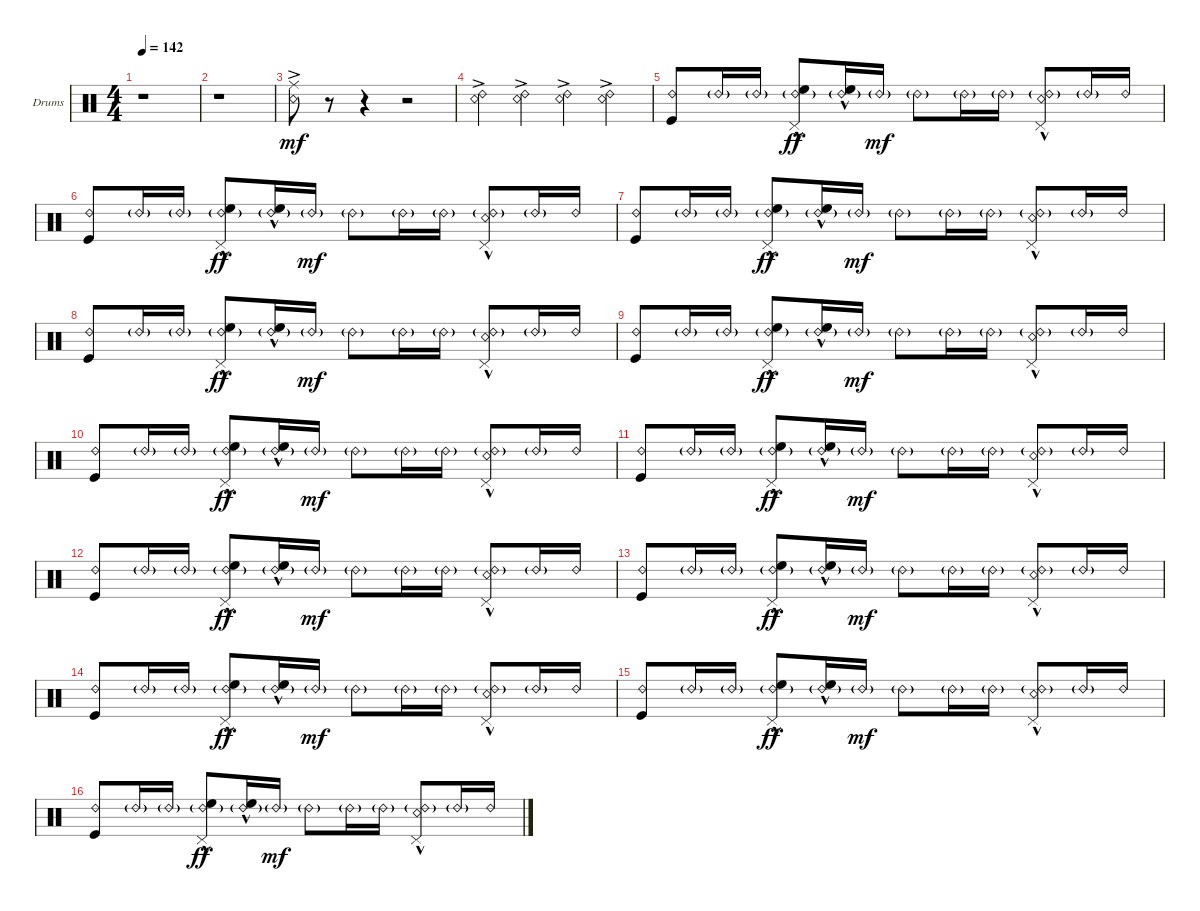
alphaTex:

\defaultSystemsLayout 4
\bracketExtendMode groupsimilarinstruments
\firstSystemTrackNameOrientation horizontal
\otherSystemsTrackNameOrientation horizontal
\track ("Drums" "Drums") {instrument percussion}
\staff {score}
\articulation defaults
\ts (4 4)
\tempo 142
\clef neutral
\scale
0.472222
\ks c
r.1{dy mf} |
\scale
0.263889 r.1 |
\scale
0.263889 ("Snare (rim shot)"{ac} "Ride (middle)"{ac}).8 r.8 r.4 r.2 |
\scale
0.333333 ("Ride (bell) 2"{ac} "Snare (rim shot)"{ac}).4 ("Ride (bell) 2"{ac} "Snare (rim shot)"{ac}).4 ("Ride (bell) 2"{ac} "Snare (rim shot)"{ac}).4 ("Ride (bell) 2"{ac} "Snare (rim shot)"{ac}).4 |
\scale
0.333333 ("Ride (bell) 2" "Kick (hit)").8 "Ride (bell) 2"{g}.16 "Ride (bell) 2"{g}.16 ("Ride (bell) 2"{g} "High Floor Tom (hit)"{hac} "Pedal Hi-Hat (hit)").8{dy ff} ("Ride (bell) 2"{g} "High Floor Tom (hit)"{hac}).16 "Ride (bell) 2"{g}.16{dy mf} "Ride (bell) 2"{g}.8 "Ride (bell) 2"{g}.16 "Ride (bell) 2"{g}.16 ("Ride (bell) 2"{g} "Snare (rim shot)"{hac} "Pedal Hi-Hat (hit)").8 "Ride (bell) 2"{g}.16 "Ride (bell) 2".16 |
\scale
0.333333 ("Ride (bell) 2" "Kick (hit)").8 "Ride (bell) 2"{g}.16 "Ride (bell) 2"{g}.16 ("Ride (bell) 2"{g} "High Floor Tom (hit)"{hac} "Pedal Hi-Hat (hit)").8{dy ff} ("Ride (bell) 2"{g} "High Floor Tom (hit)"{hac}).16 "Ride (bell) 2"{g}.16{dy mf} "Ride (bell) 2"{g}.8 "Ride (bell) 2"{g}.16 "Ride (bell) 2"{g}.16 ("Ride (bell) 2"{g} "Snare (rim shot)"{hac} "Pedal Hi-Hat (hit)").8 "Ride (bell) 2"{g}.16 "Ride (bell) 2".16 |
\scale
0.333333 ("Ride (bell) 2" "Kick (hit)").8 "Ride (bell) 2"{g}.16 "Ride (bell) 2"{g}.16 ("Ride (bell) 2"{g} "High Floor Tom (hit)"{hac} "Pedal Hi-Hat (hit)").8{dy ff} ("Ride (bell) 2"{g} "High Floor Tom (hit)"{hac}).16 "Ride (bell) 2"{g}.16{dy mf} "Ride (bell) 2"{g}.8 "Ride (bell) 2"{g}.16 "Ride (bell) 2"{g}.16 ("Ride (bell) 2"{g} "Snare (rim shot)"{hac} "Pedal Hi-Hat (hit)").8 "Ride (bell) 2"{g}.16 "Ride (bell) 2".16 |
\scale
0.333333 ("Ride (bell) 2" "Kick (hit)").8 "Ride (bell) 2"{g}.16 "Ride (bell) 2"{g}.16 ("Ride (bell) 2"{g} "High Floor Tom (hit)"{hac} "Pedal Hi-Hat (hit)").8{dy ff} ("Ride (bell) 2"{g} "High Floor Tom (hit)"{hac}).16 "Ride (bell) 2"{g}.16{dy mf} "Ride (bell) 2"{g}.8 "Ride (bell) 2"{g}.16 "Ride (bell) 2"{g}.16 ("Ride (bell) 2"{g} "Snare (rim shot)"{hac} "Pedal Hi-Hat (hit)").8 "Ride (bell) 2"{g}.16 "Ride (bell) 2".16 |
\scale
0.333333 ("Ride (bell) 2" "Kick (hit)").8 "Ride (bell) 2"{g}.16 "Ride (bell) 2"{g}.16 ("Ride (bell) 2"{g} "High Floor Tom (hit)"{hac} "Pedal Hi-Hat (hit)").8{dy ff} ("Ride (bell) 2"{g} "High Floor Tom (hit)"{hac}).16 "Ride (bell) 2"{g}.16{dy mf} "Ride (bell) 2"{g}.8 "Ride (bell) 2"{g}.16 "Ride (bell) 2"{g}.16 ("Ride (bell) 2"{g} "Snare (rim shot)"{hac} "Pedal Hi-Hat (hit)").8 "Ride (bell) 2"{g}.16 "Ride (bell) 2".16 |
\scale
0.333333 ("Ride (bell) 2" "Kick (hit)").8 "Ride (bell) 2"{g}.16 "Ride (bell) 2"{g}.16 ("Ride (bell) 2"{g} "High Floor Tom (hit)"{hac} "Pedal Hi-Hat (hit)").8{dy ff} ("Ride (bell) 2"{g} "High Floor Tom (hit)"{hac}).16 "Ride (bell) 2"{g}.16{dy mf} "Ride (bell) 2"{g}.8 "Ride (bell) 2"{g}.16 "Ride (bell) 2"{g}.16 ("Ride (bell) 2"{g} "Snare (rim shot)"{hac} "Pedal Hi-Hat (hit)").8 "Ride (bell) 2"{g}.16 "Ride (bell) 2".16 |
\scale
0.333333 ("Ride (bell) 2" "Kick (hit)").8 "Ride (bell) 2"{g}.16 "Ride (bell) 2"{g}.16 ("Ride (bell) 2"{g} "High Floor Tom (hit)"{hac} "Pedal Hi-Hat (hit)").8{dy ff} ("Ride (bell) 2"{g} "High Floor Tom (hit)"{hac}).16 "Ride (bell) 2"{g}.16{dy mf} "Ride (bell) 2"{g}.8 "Ride (bell) 2"{g}.16 "Ride (bell) 2"{g}.16 ("Ride (bell) 2"{g} "Snare (rim shot)"{hac} "Pedal Hi-Hat (hit)").8 "Ride (bell) 2"{g}.16 "Ride (bell) 2".16 |
\scale
0.333333 ("Ride (bell) 2" "Kick (hit)").8 "Ride (bell) 2"{g}.16 "Ride (bell) 2"{g}.16 ("Ride (bell) 2"{g} "High Floor Tom (hit)"{hac} "Pedal Hi-Hat (hit)").8{dy ff} ("Ride (bell) 2"{g} "High Floor Tom (hit)"{hac}).16 "Ride (bell) 2"{g}.16{dy mf} "Ride (bell) 2"{g}.8 "Ride (bell) 2"{g}.16 "Ride (bell) 2"{g}.16 ("Ride (bell) 2"{g} "Snare (rim shot)"{hac} "Pedal Hi-Hat (hit)").8 "Ride (bell) 2"{g}.16 "Ride (bell) 2".16 |
\scale
0.333333 ("Ride (bell) 2" "Kick (hit)").8 "Ride (bell) 2"{g}.16 "Ride (bell) 2"{g}.16 ("Ride (bell) 2"{g} "High Floor Tom (hit)"{hac} "Pedal Hi-Hat (hit)").8{dy ff} ("Ride (bell) 2"{g} "High Floor Tom (hit)"{hac}).16 "Ride (bell) 2"{g}.16{dy mf} "Ride (bell) 2"{g}.8 "Ride (bell) 2"{g}.16 "Ride (bell) 2"{g}.16 ("Ride (bell) 2"{g} "Snare (rim shot)"{hac} "Pedal Hi-Hat (hit)").8 "Ride (bell) 2"{g}.16 "Ride (bell) 2".16 |
\scale
0.333333 ("Ride (bell) 2" "Kick (hit)").8 "Ride (bell) 2"{g}.16 "Ride (bell) 2"{g}.16 ("Ride (bell) 2"{g} "High Floor Tom (hit)"{hac} "Pedal Hi-Hat (hit)").8{dy ff} ("Ride (bell) 2"{g} "High Floor Tom (hit)"{hac}).16 "Ride (bell) 2"{g}.16{dy mf} "Ride (bell) 2"{g}.8 "Ride (bell) 2"{g}.16 "Ride (bell) 2"{g}.16 ("Ride (bell) 2"{g} "Snare (rim shot)"{hac} "Pedal Hi-Hat (hit)").8 "Ride (bell) 2"{g}.16 "Ride (bell) 2".16 |
\scale
0.333333 ("Ride (bell) 2" "Kick (hit)").8 "Ride (bell) 2"{g}.16 "Ride (bell) 2"{g}.16 ("Ride (bell) 2"{g} "High Floor Tom (hit)"{hac} "Pedal Hi-Hat (hit)").8{dy ff} ("Ride (bell) 2"{g} "High Floor Tom (hit)"{hac}).16 "Ride (bell) 2"{g}.16{dy mf} "Ride (bell) 2"{g}.8 "Ride (bell) 2"{g}.16 "Ride (bell) 2"{g}.16 ("Ride (bell) 2"{g} "Snare (rim shot)"{hac} "Pedal Hi-Hat (hit)").8 "Ride (bell) 2"{g}.16 "Ride (bell) 2".16 |
\scale
0.333333 ("Ride (bell) 2" "Kick (hit)").8 "Ride (bell) 2"{g}.16 "Ride (bell) 2"{g}.16 ("Ride (bell) 2"{g} "High Floor Tom (hit)"{hac} "Pedal Hi-Hat (hit)").8{dy ff} ("Ride (bell) 2"{g} "High Floor Tom (hit)"{hac}).16 "Ride (bell) 2"{g}.16{dy mf} "Ride (bell) 2"{g}.8 "Ride (bell) 2"{g}.16 "Ride (bell) 2"{g}.16 ("Ride (bell) 2"{g} "Snare (rim shot)"{hac} "Pedal Hi-Hat (hit)").8 "Ride (bell) 2"{g}.16 "Ride (bell) 2".16
